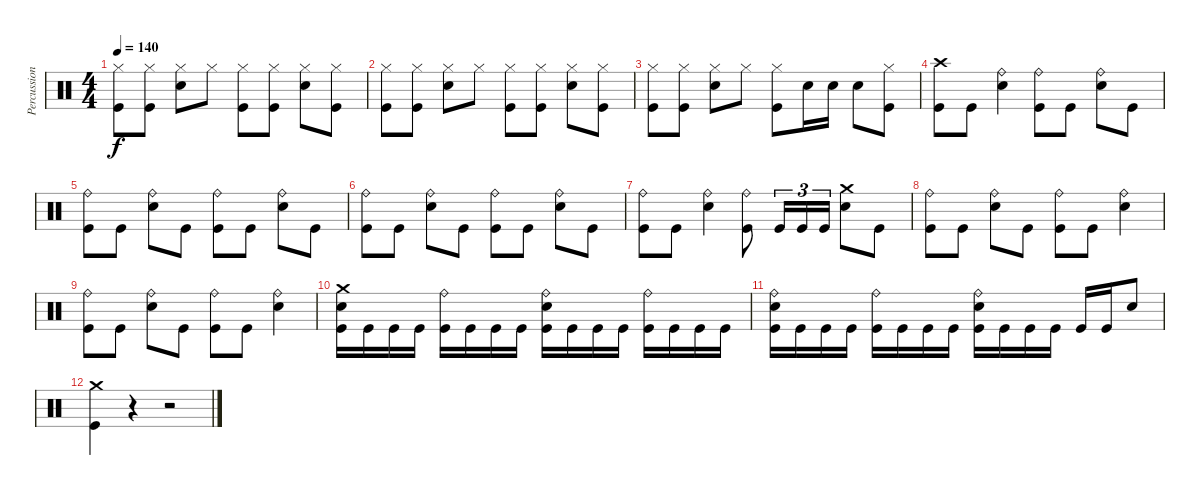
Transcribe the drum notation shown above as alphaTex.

\track ("Percussion" "Percussion") {instrument percussion}
\staff {score}
\articulation defaults
\ts (4 4)
\tempo 140
\clef neutral
\ks c
("Kick (hit)" "Hi-Hat (closed)").8{dy f} ("Kick (hit)" "Hi-Hat (closed)").8 ("Snare (hit) 2" "Hi-Hat (closed)").8 "Hi-Hat (closed)".8 ("Kick (hit)" "Hi-Hat (closed)").8 ("Kick (hit)" "Hi-Hat (closed)").8 ("Snare (hit) 2" "Hi-Hat (closed)").8 ("Kick (hit)" "Hi-Hat (closed)").8 |
("Kick (hit)" "Hi-Hat (closed)").8 ("Kick (hit)" "Hi-Hat (closed)").8 ("Snare (hit) 2" "Hi-Hat (closed)").8 "Hi-Hat (closed)".8 ("Kick (hit)" "Hi-Hat (closed)").8 ("Kick (hit)" "Hi-Hat (closed)").8 ("Snare (hit) 2" "Hi-Hat (closed)").8 ("Kick (hit)" "Hi-Hat (closed)").8 |
("Kick (hit)" "Hi-Hat (closed)").8 ("Kick (hit)" "Hi-Hat (closed)").8 ("Snare (hit) 2" "Hi-Hat (closed)").8 "Hi-Hat (closed)".8 ("Kick (hit)" "Hi-Hat (closed)").8 "Snare (hit) 2".16 "Snare (hit) 2".16 "Snare (hit) 2".8 ("Kick (hit)" "Hi-Hat (closed)").8 |
("Kick (hit)" "Crash high (hit)").8 "Kick (hit)".8 ("Snare (hit) 2" "Ride (bell)").4 ("Kick (hit)" "Ride (bell)").8 "Kick (hit)".8 ("Snare (hit) 2" "Ride (bell)").8 "Kick (hit)".8 |
("Kick (hit)" "Ride (bell)").8 "Kick (hit)".8 ("Snare (hit) 2" "Ride (bell)").8 "Kick (hit)".8 ("Kick (hit)" "Ride (bell)").8 "Kick (hit)".8 ("Snare (hit) 2" "Ride (bell)").8 "Kick (hit)".8 |
("Kick (hit)" "Ride (bell)").8 "Kick (hit)".8 ("Snare (hit) 2" "Ride (bell)").8 "Kick (hit)".8 ("Kick (hit)" "Ride (bell)").8 "Kick (hit)".8 ("Snare (hit) 2" "Ride (bell)").8 "Kick (hit)".8 |
("Kick (hit)" "Ride (bell)").8 "Kick (hit)".8 ("Snare (hit) 2" "Ride (bell)").4 ("Kick (hit)" "Ride (bell)").8 "Kick (hit)".16{tu (3 2)} "Kick (hit)".16{tu (3 2)} "Kick (hit)".16{tu (3 2)} ("Snare (hit) 2" "Crash medium (hit)").8 "Kick (hit)".8 |
("Kick (hit)" "Ride (bell)").8 "Kick (hit)".8 ("Snare (hit) 2" "Ride (bell)").8 "Kick (hit)".8 ("Kick (hit)" "Ride (bell)").8 "Kick (hit)".8 ("Snare (hit) 2" "Ride (bell)").4 |
("Kick (hit)" "Ride (bell)").8 "Kick (hit)".8 ("Snare (hit) 2" "Ride (bell)").8 "Kick (hit)".8 ("Kick (hit)" "Ride (bell)").8 "Kick (hit)".8 ("Snare (hit) 2" "Ride (bell)").4 |
("Kick (hit)" "Snare (hit) 2" "Crash medium (hit)").16 "Kick (hit)".16 "Kick (hit)".16 "Kick (hit)".16 ("Kick (hit)" "Ride (bell)").16 "Kick (hit)".16 "Kick (hit)".16 "Kick (hit)".16 ("Kick (hit)" "Snare (hit) 2" "Ride (bell)").16 "Kick (hit)".16 "Kick (hit)".16 "Kick (hit)".16 ("Kick (hit)" "Ride (bell)").16 "Kick (hit)".16 "Kick (hit)".16 "Kick (hit)".16 |
("Kick (hit)" "Snare (hit) 2" "Ride (bell)").16 "Kick (hit)".16 "Kick (hit)".16 "Kick (hit)".16 ("Kick (hit)" "Ride (bell)").16 "Kick (hit)".16 "Kick (hit)".16 "Kick (hit)".16 ("Kick (hit)" "Snare (hit) 2" "Ride (bell)").16 "Kick (hit)".16 "Kick (hit)".16 "Kick (hit)".16 "Kick (hit)".16 "Kick (hit)".16 "Snare (hit) 2".8 |
("Kick (hit)" "Crash medium (hit)").4 r.4 r.2
